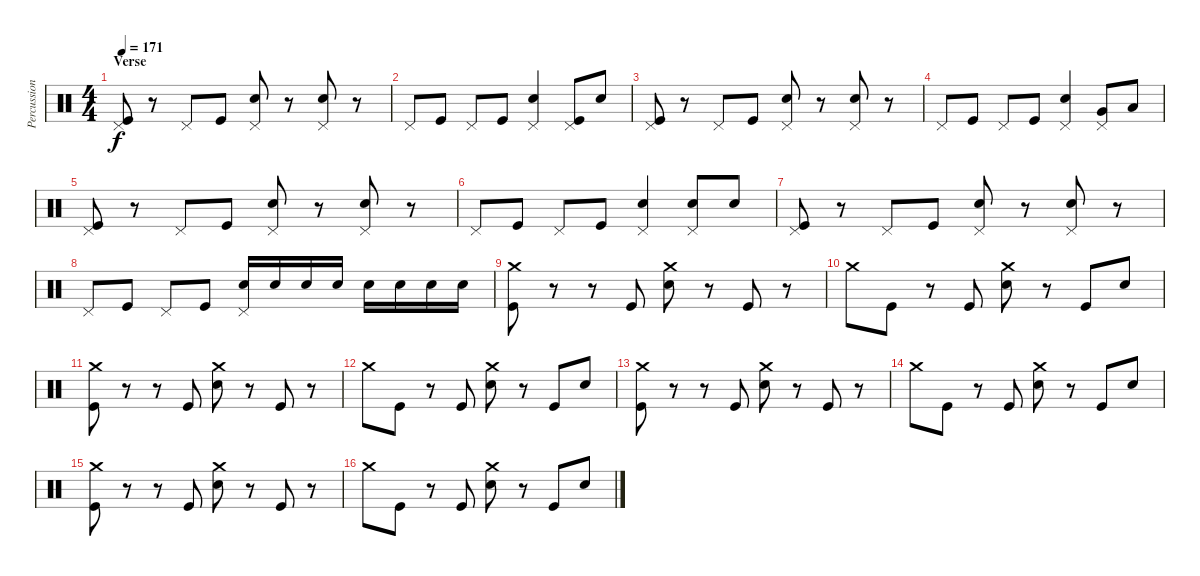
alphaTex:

\track ("Percussion" "Percussion") {instrument percussion}
\staff {score}
\articulation defaults
\ts (4 4)
\section ("" "Verse")
\tempo 171
\clef neutral
\ks c
("Pedal Hi-Hat (hit)" "Kick (hit)").8{dy f} r.8 "Pedal Hi-Hat (hit)".8 "Kick (hit)".8 ("Pedal Hi-Hat (hit)" "Electric Snare (hit)").8 r.8 ("Pedal Hi-Hat (hit)" "Electric Snare (hit)").8 r.8 |
"Pedal Hi-Hat (hit)".8 "Kick (hit)".8 "Pedal Hi-Hat (hit)".8 "Kick (hit)".8 ("Pedal Hi-Hat (hit)" "Electric Snare (hit)").4 ("Pedal Hi-Hat (hit)" "Kick (hit)").8 "Electric Snare (hit)".8 |
("Pedal Hi-Hat (hit)" "Kick (hit)").8 r.8 "Pedal Hi-Hat (hit)".8 "Kick (hit)".8 ("Pedal Hi-Hat (hit)" "Electric Snare (hit)").8 r.8 ("Pedal Hi-Hat (hit)" "Electric Snare (hit)").8 r.8 |
"Pedal Hi-Hat (hit)".8 "Kick (hit)".8 "Pedal Hi-Hat (hit)".8 "Kick (hit)".8 ("Pedal Hi-Hat (hit)" "Electric Snare (hit)").4 ("Pedal Hi-Hat (hit)" "Very Low Tom (hit)").8 "Low Floor Tom (hit)".8 |
("Pedal Hi-Hat (hit)" "Kick (hit)").8 r.8 "Pedal Hi-Hat (hit)".8 "Kick (hit)".8 ("Pedal Hi-Hat (hit)" "Electric Snare (hit)").8 r.8 ("Pedal Hi-Hat (hit)" "Electric Snare (hit)").8 r.8 |
"Pedal Hi-Hat (hit)".8 "Kick (hit)".8 "Pedal Hi-Hat (hit)".8 "Kick (hit)".8 ("Pedal Hi-Hat (hit)" "Electric Snare (hit)").4 ("Pedal Hi-Hat (hit)" "Electric Snare (hit)").8 "Electric Snare (hit)".8 |
("Pedal Hi-Hat (hit)" "Kick (hit)").8 r.8 "Pedal Hi-Hat (hit)".8 "Kick (hit)".8 ("Pedal Hi-Hat (hit)" "Electric Snare (hit)").8 r.8 ("Pedal Hi-Hat (hit)" "Electric Snare (hit)").8 r.8 |
"Pedal Hi-Hat (hit)".8 "Kick (hit)".8 "Pedal Hi-Hat (hit)".8 "Kick (hit)".8 ("Pedal Hi-Hat (hit)" "Electric Snare (hit)").16 "Electric Snare (hit)".16 "Electric Snare (hit)".16 "Electric Snare (hit)".16 "Electric Snare (hit)".16 "Electric Snare (hit)".16 "Electric Snare (hit)".16 "Electric Snare (hit)".16 |
("Crash medium (hit)" "Kick (hit)").8 r.8 r.8 "Kick (hit)".8 ("Crash medium (hit)" "Electric Snare (hit)").8 r.8 "Kick (hit)".8 r.8 |
"Crash medium (hit)".8 "Kick (hit)".8 r.8 "Kick (hit)".8 ("Crash medium (hit)" "Electric Snare (hit)").8 r.8 "Kick (hit)".8 "Electric Snare (hit)".8 |
("Crash medium (hit)" "Kick (hit)").8 r.8 r.8 "Kick (hit)".8 ("Crash medium (hit)" "Electric Snare (hit)").8 r.8 "Kick (hit)".8 r.8 |
"Crash medium (hit)".8 "Kick (hit)".8 r.8 "Kick (hit)".8 ("Crash medium (hit)" "Electric Snare (hit)").8 r.8 "Kick (hit)".8 "Electric Snare (hit)".8 |
("Crash medium (hit)" "Kick (hit)").8 r.8 r.8 "Kick (hit)".8 ("Crash medium (hit)" "Electric Snare (hit)").8 r.8 "Kick (hit)".8 r.8 |
"Crash medium (hit)".8 "Kick (hit)".8 r.8 "Kick (hit)".8 ("Crash medium (hit)" "Electric Snare (hit)").8 r.8 "Kick (hit)".8 "Electric Snare (hit)".8 |
("Crash medium (hit)" "Kick (hit)").8 r.8 r.8 "Kick (hit)".8 ("Crash medium (hit)" "Electric Snare (hit)").8 r.8 "Kick (hit)".8 r.8 |
"Crash medium (hit)".8 "Kick (hit)".8 r.8 "Kick (hit)".8 ("Crash medium (hit)" "Electric Snare (hit)").8 r.8 "Kick (hit)".8 "Electric Snare (hit)".8
